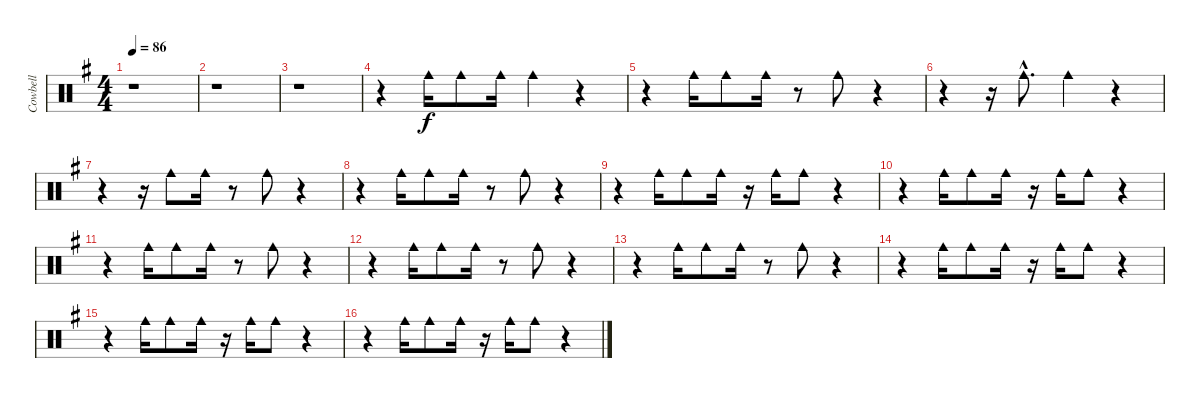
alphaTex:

\track ("Cowbell" "Cowbell") {instrument percussion}
\staff {score}
\articulation defaults
\ts (4 4)
\tempo 86
\clef neutral
\ks g
r.1{dy f} |
r.1 |
r.1 |
r.4 "Cowbell medium (hit)".16 "Cowbell medium (hit)".8 "Cowbell medium (hit)".16 "Cowbell medium (hit)".4 r.4 |
r.4 "Cowbell medium (hit)".16 "Cowbell medium (hit)".8 "Cowbell medium (hit)".16 r.8 "Cowbell medium (hit)".8 r.4 |
r.4 r.16 "Cowbell medium (hit)"{hac}.8{d} "Cowbell medium (hit)".4 r.4 |
r.4 r.16 "Cowbell medium (hit)".8 "Cowbell medium (hit)".16 r.8 "Cowbell medium (hit)".8 r.4 |
r.4 "Cowbell medium (hit)".16 "Cowbell medium (hit)".8 "Cowbell medium (hit)".16 r.8 "Cowbell medium (hit)".8 r.4 |
r.4 "Cowbell medium (hit)".16 "Cowbell medium (hit)".8 "Cowbell medium (hit)".16 r.16 "Cowbell medium (hit)".16 "Cowbell medium (hit)".8 r.4 |
r.4 "Cowbell medium (hit)".16 "Cowbell medium (hit)".8 "Cowbell medium (hit)".16 r.16 "Cowbell medium (hit)".16 "Cowbell medium (hit)".8 r.4 |
r.4 "Cowbell medium (hit)".16 "Cowbell medium (hit)".8 "Cowbell medium (hit)".16 r.8 "Cowbell medium (hit)".8 r.4 |
r.4 "Cowbell medium (hit)".16 "Cowbell medium (hit)".8 "Cowbell medium (hit)".16 r.8 "Cowbell medium (hit)".8 r.4 |
r.4 "Cowbell medium (hit)".16 "Cowbell medium (hit)".8 "Cowbell medium (hit)".16 r.8 "Cowbell medium (hit)".8 r.4 |
r.4 "Cowbell medium (hit)".16 "Cowbell medium (hit)".8 "Cowbell medium (hit)".16 r.16 "Cowbell medium (hit)".16 "Cowbell medium (hit)".8 r.4 |
r.4 "Cowbell medium (hit)".16 "Cowbell medium (hit)".8 "Cowbell medium (hit)".16 r.16 "Cowbell medium (hit)".16 "Cowbell medium (hit)".8 r.4 |
r.4 "Cowbell medium (hit)".16 "Cowbell medium (hit)".8 "Cowbell medium (hit)".16 r.16 "Cowbell medium (hit)".16 "Cowbell medium (hit)".8 r.4
